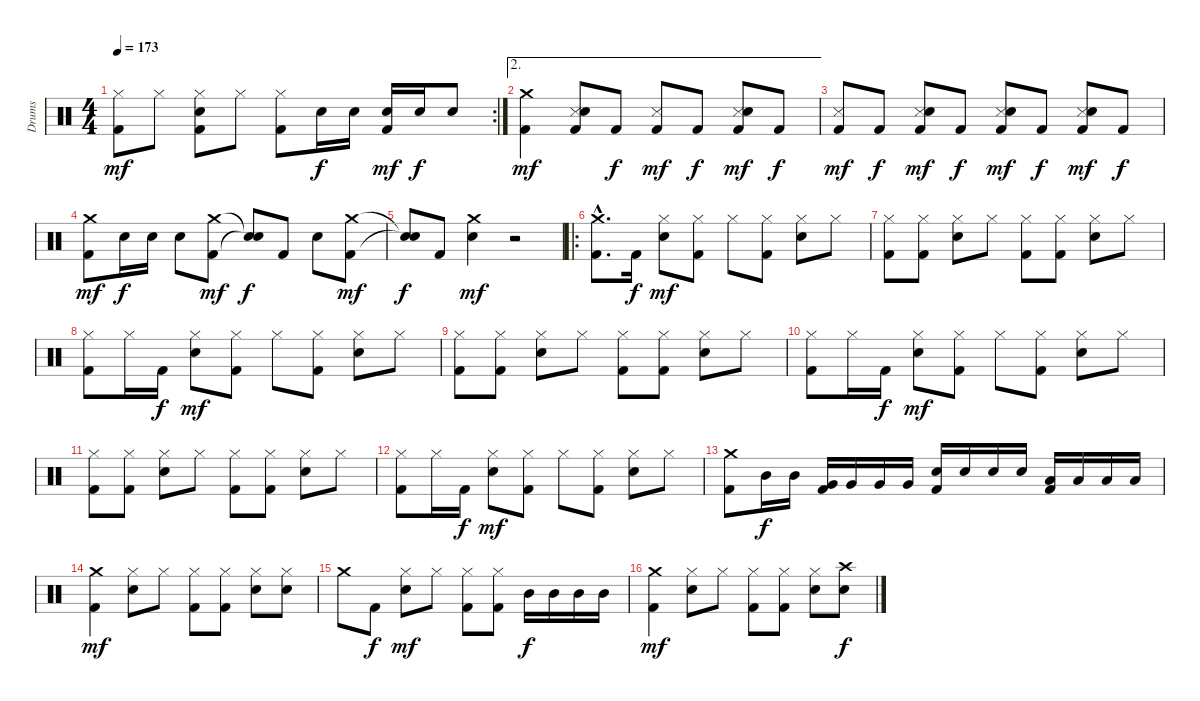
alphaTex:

\track ("Drums" "Drums") {instrument percussion}
\staff {score}
\articulation defaults
\rc 2
\ts (4 4)
\tempo 173
\clef neutral
\ks c
("Hi-Hat (closed)" "Kick (hit) 2").8{dy mf} "Hi-Hat (closed)".8 ("Hi-Hat (closed)" "Electric Snare (hit)" "Kick (hit) 2").8 "Hi-Hat (closed)".8 ("Hi-Hat (closed)" "Kick (hit) 2").8 "Electric Snare (hit)".16{dy f} "Electric Snare (hit)".16 ("Electric Snare (hit)" "Kick (hit) 2").16{dy mf} "Electric Snare (hit)".16{dy f} "Electric Snare (hit)".8 |
\ae 2
("Crash medium (hit)" "Kick (hit) 2").4{dy mf} ("Metronome (hit)" "Electric Snare (hit)" "Kick (hit) 2").8 "Kick (hit) 2".8{dy f} ("Metronome (hit)" "Kick (hit) 2").8{dy mf} "Kick (hit) 2".8{dy f} ("Metronome (hit)" "Electric Snare (hit)" "Kick (hit) 2").8{dy mf} "Kick (hit) 2".8{dy f} |
("Metronome (hit)" "Kick (hit) 2").8{dy mf} "Kick (hit) 2".8{dy f} ("Metronome (hit)" "Electric Snare (hit)" "Kick (hit) 2").8{dy mf} "Kick (hit) 2".8{dy f} ("Metronome (hit)" "Electric Snare (hit)" "Kick (hit) 2").8{dy mf} "Kick (hit) 2".8{dy f} ("Metronome (hit)" "Electric Snare (hit)" "Kick (hit) 2").8{dy mf} "Kick (hit) 2".8{dy f} |
("Crash medium (hit)" "Kick (hit) 2").8{dy mf} "Electric Snare (hit)".16{dy f} "Electric Snare (hit)".16 "Electric Snare (hit)".8 ("Crash medium (hit)" "Kick (hit) 2").8{dy mf} ("Snare (hit)"{t} "Snare (hit)"{t}).8{dy f} "Kick (hit) 2".8 "Electric Snare (hit)".8 ("Crash medium (hit)" "Kick (hit) 2").8{dy mf} |
("Snare (hit)"{t} "Snare (hit)"{t}).8{dy f} "Kick (hit) 2".8 ("Crash medium (hit)" "Electric Snare (hit)").4{dy mf} r.2 |
\ro
("Crash medium (hit)"{hac} "Kick (hit) 2"{hac}).8{d} "Kick (hit) 2".16{dy f} ("Hi-Hat (closed)" "Electric Snare (hit)").8{dy mf} ("Hi-Hat (closed)" "Kick (hit) 2").8 "Hi-Hat (closed)".8 ("Hi-Hat (closed)" "Kick (hit) 2").8 ("Hi-Hat (closed)" "Electric Snare (hit)").8 "Hi-Hat (closed)".8 |
("Hi-Hat (closed)" "Kick (hit) 2").8 ("Hi-Hat (closed)" "Kick (hit) 2").8 ("Hi-Hat (closed)" "Electric Snare (hit)").8 "Hi-Hat (closed)".8 ("Hi-Hat (closed)" "Kick (hit) 2").8 ("Hi-Hat (closed)" "Kick (hit) 2").8 ("Hi-Hat (closed)" "Electric Snare (hit)").8 "Hi-Hat (closed)".8 |
("Hi-Hat (closed)" "Kick (hit) 2").8 "Hi-Hat (closed)".16 "Kick (hit) 2".16{dy f} ("Hi-Hat (closed)" "Electric Snare (hit)").8{dy mf} ("Hi-Hat (closed)" "Kick (hit) 2").8 "Hi-Hat (closed)".8 ("Hi-Hat (closed)" "Kick (hit) 2").8 ("Hi-Hat (closed)" "Electric Snare (hit)").8 "Hi-Hat (closed)".8 |
("Hi-Hat (closed)" "Kick (hit) 2").8 ("Hi-Hat (closed)" "Kick (hit) 2").8 ("Hi-Hat (closed)" "Electric Snare (hit)").8 "Hi-Hat (closed)".8 ("Hi-Hat (closed)" "Kick (hit) 2").8 ("Hi-Hat (closed)" "Kick (hit) 2").8 ("Hi-Hat (closed)" "Electric Snare (hit)").8 "Hi-Hat (closed)".8 |
("Hi-Hat (closed)" "Kick (hit) 2").8 "Hi-Hat (closed)".16 "Kick (hit) 2".16{dy f} ("Hi-Hat (closed)" "Electric Snare (hit)").8{dy mf} ("Hi-Hat (closed)" "Kick (hit) 2").8 "Hi-Hat (closed)".8 ("Hi-Hat (closed)" "Kick (hit) 2").8 ("Hi-Hat (closed)" "Electric Snare (hit)").8 "Hi-Hat (closed)".8 |
("Hi-Hat (closed)" "Kick (hit) 2").8 ("Hi-Hat (closed)" "Kick (hit) 2").8 ("Hi-Hat (closed)" "Electric Snare (hit)").8 "Hi-Hat (closed)".8 ("Hi-Hat (closed)" "Kick (hit) 2").8 ("Hi-Hat (closed)" "Kick (hit) 2").8 ("Hi-Hat (closed)" "Electric Snare (hit)").8 "Hi-Hat (closed)".8 |
("Hi-Hat (closed)" "Kick (hit) 2").8 "Hi-Hat (closed)".16 "Kick (hit) 2".16{dy f} ("Hi-Hat (closed)" "Electric Snare (hit)").8{dy mf} ("Hi-Hat (closed)" "Kick (hit) 2").8 "Hi-Hat (closed)".8 ("Hi-Hat (closed)" "Kick (hit) 2").8 ("Hi-Hat (closed)" "Electric Snare (hit)").8 "Hi-Hat (closed)".8 |
("Crash medium (hit)" "Kick (hit) 2").8 "Mid Tom (hit)".16{dy f} "Mid Tom (hit)".16 ("Very Low Tom (hit)" "Kick (hit) 2").16 "Very Low Tom (hit)".16 "Very Low Tom (hit)".16 "Very Low Tom (hit)".16 ("Electric Snare (hit)" "Kick (hit) 2").16 "Electric Snare (hit)".16 "Electric Snare (hit)".16 "Electric Snare (hit)".16 ("Low Floor Tom (hit)" "Kick (hit) 2").16 "Low Floor Tom (hit)".16 "Low Floor Tom (hit)".16 "Low Floor Tom (hit)".16 |
("Crash medium (hit)" "Kick (hit) 2").4{dy mf} ("Hi-Hat (closed)" "Electric Snare (hit)").8 "Hi-Hat (closed)".8 ("Hi-Hat (closed)" "Kick (hit) 2").8 ("Hi-Hat (closed)" "Kick (hit) 2").8 ("Hi-Hat (closed)" "Electric Snare (hit)").8 ("Hi-Hat (closed)" "Electric Snare (hit)").8 |
"Crash medium (hit)".8 "Kick (hit) 2".8{dy f} ("Hi-Hat (closed)" "Electric Snare (hit)").8{dy mf} "Hi-Hat (closed)".8 ("Hi-Hat (closed)" "Kick (hit) 2").8 ("Hi-Hat (closed)" "Kick (hit) 2").8 "Mid Tom (hit)".16{dy f} "Mid Tom (hit)".16 "Mid Tom (hit)".16 "Mid Tom (hit)".16 |
("Crash medium (hit)" "Kick (hit) 2").4{dy mf} ("Hi-Hat (closed)" "Electric Snare (hit)").8 "Hi-Hat (closed)".8 ("Hi-Hat (closed)" "Kick (hit) 2").8 ("Hi-Hat (closed)" "Kick (hit) 2").8 ("Hi-Hat (closed)" "Electric Snare (hit)").8 ("Crash high (hit)" "Electric Snare (hit)").8{dy f}
